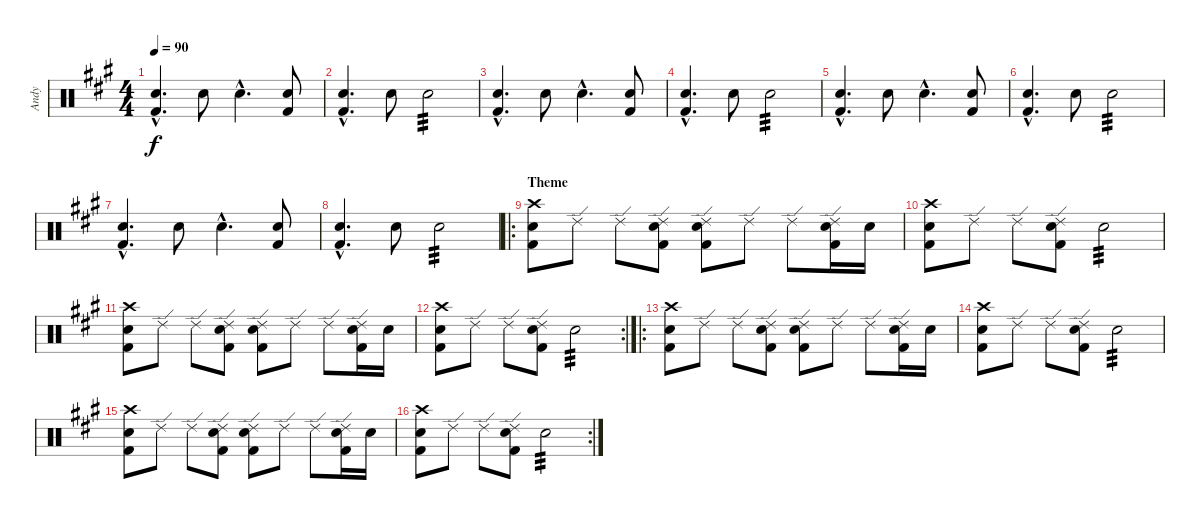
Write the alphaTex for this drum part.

\track ("Andy" "Andy") {instrument percussion}
\staff {score}
\articulation defaults
\ts (4 4)
\tempo 90
\clef neutral
\ks f#minor
("Snare (hit) 2"{hac} "Kick (hit) 2"{hac}).4{d dy f} "Snare (hit) 2".8 "Snare (hit) 2"{hac}.4{d} ("Snare (hit) 2" "Kick (hit) 2").8 |
("Snare (hit) 2"{hac} "Kick (hit) 2"{hac}).4{d} "Snare (hit) 2".8 "Snare (hit) 2".2{tp 3} |
("Snare (hit) 2"{hac} "Kick (hit) 2"{hac}).4{d} "Snare (hit) 2".8 "Snare (hit) 2"{hac}.4{d} ("Snare (hit) 2" "Kick (hit) 2").8 |
("Snare (hit) 2"{hac} "Kick (hit) 2"{hac}).4{d} "Snare (hit) 2".8 "Snare (hit) 2".2{tp 3} |
("Snare (hit) 2"{hac} "Kick (hit) 2"{hac}).4{d} "Snare (hit) 2".8 "Snare (hit) 2"{hac}.4{d} ("Snare (hit) 2" "Kick (hit) 2").8 |
("Snare (hit) 2"{hac} "Kick (hit) 2"{hac}).4{d} "Snare (hit) 2".8 "Snare (hit) 2".2{tp 3} |
("Snare (hit) 2"{hac} "Kick (hit) 2"{hac}).4{d} "Snare (hit) 2".8 "Snare (hit) 2"{hac}.4{d} ("Snare (hit) 2" "Kick (hit) 2").8 |
("Snare (hit) 2"{hac} "Kick (hit) 2"{hac}).4{d} "Snare (hit) 2".8 "Snare (hit) 2".2{tp 3} |
\ro
\section ("" "Theme")
("Crash high (hit)" "Snare (hit) 2" "Kick (hit) 2").8 "Ride (edge) 2".8 "Ride (edge) 2".8 ("Ride (edge) 2" "Snare (hit) 2" "Kick (hit) 2").8 ("Ride (edge) 2" "Snare (hit) 2" "Kick (hit) 2").8 "Ride (edge) 2".8 "Ride (edge) 2".8 ("Ride (edge) 2" "Snare (hit) 2" "Kick (hit) 2").16 "Snare (hit) 2".16 |
("Crash high (hit)" "Snare (hit) 2" "Kick (hit) 2").8 "Ride (edge) 2".8 "Ride (edge) 2".8 ("Ride (edge) 2" "Snare (hit) 2" "Kick (hit) 2").8 "Snare (hit) 2".2{tp 3} |
("Crash high (hit)" "Snare (hit) 2" "Kick (hit) 2").8 "Ride (edge) 2".8 "Ride (edge) 2".8 ("Ride (edge) 2" "Snare (hit) 2" "Kick (hit) 2").8 ("Ride (edge) 2" "Snare (hit) 2" "Kick (hit) 2").8 "Ride (edge) 2".8 "Ride (edge) 2".8 ("Ride (edge) 2" "Snare (hit) 2" "Kick (hit) 2").16 "Snare (hit) 2".16 |
\rc 2
("Crash high (hit)" "Snare (hit) 2" "Kick (hit) 2").8 "Ride (edge) 2".8 "Ride (edge) 2".8 ("Ride (edge) 2" "Snare (hit) 2" "Kick (hit) 2").8 "Snare (hit) 2".2{tp 3} |
\ro
("Crash high (hit)" "Snare (hit) 2" "Kick (hit) 2").8 "Ride (edge) 2".8 "Ride (edge) 2".8 ("Ride (edge) 2" "Snare (hit) 2" "Kick (hit) 2").8 ("Ride (edge) 2" "Snare (hit) 2" "Kick (hit) 2").8 "Ride (edge) 2".8 "Ride (edge) 2".8 ("Ride (edge) 2" "Snare (hit) 2" "Kick (hit) 2").16 "Snare (hit) 2".16 |
("Crash high (hit)" "Snare (hit) 2" "Kick (hit) 2").8 "Ride (edge) 2".8 "Ride (edge) 2".8 ("Ride (edge) 2" "Snare (hit) 2" "Kick (hit) 2").8 "Snare (hit) 2".2{tp 3} |
("Crash high (hit)" "Snare (hit) 2" "Kick (hit) 2").8 "Ride (edge) 2".8 "Ride (edge) 2".8 ("Ride (edge) 2" "Snare (hit) 2" "Kick (hit) 2").8 ("Ride (edge) 2" "Snare (hit) 2" "Kick (hit) 2").8 "Ride (edge) 2".8 "Ride (edge) 2".8 ("Ride (edge) 2" "Snare (hit) 2" "Kick (hit) 2").16 "Snare (hit) 2".16 |
\rc 2
("Crash high (hit)" "Snare (hit) 2" "Kick (hit) 2").8 "Ride (edge) 2".8 "Ride (edge) 2".8 ("Ride (edge) 2" "Snare (hit) 2" "Kick (hit) 2").8 "Snare (hit) 2".2{tp 3}
